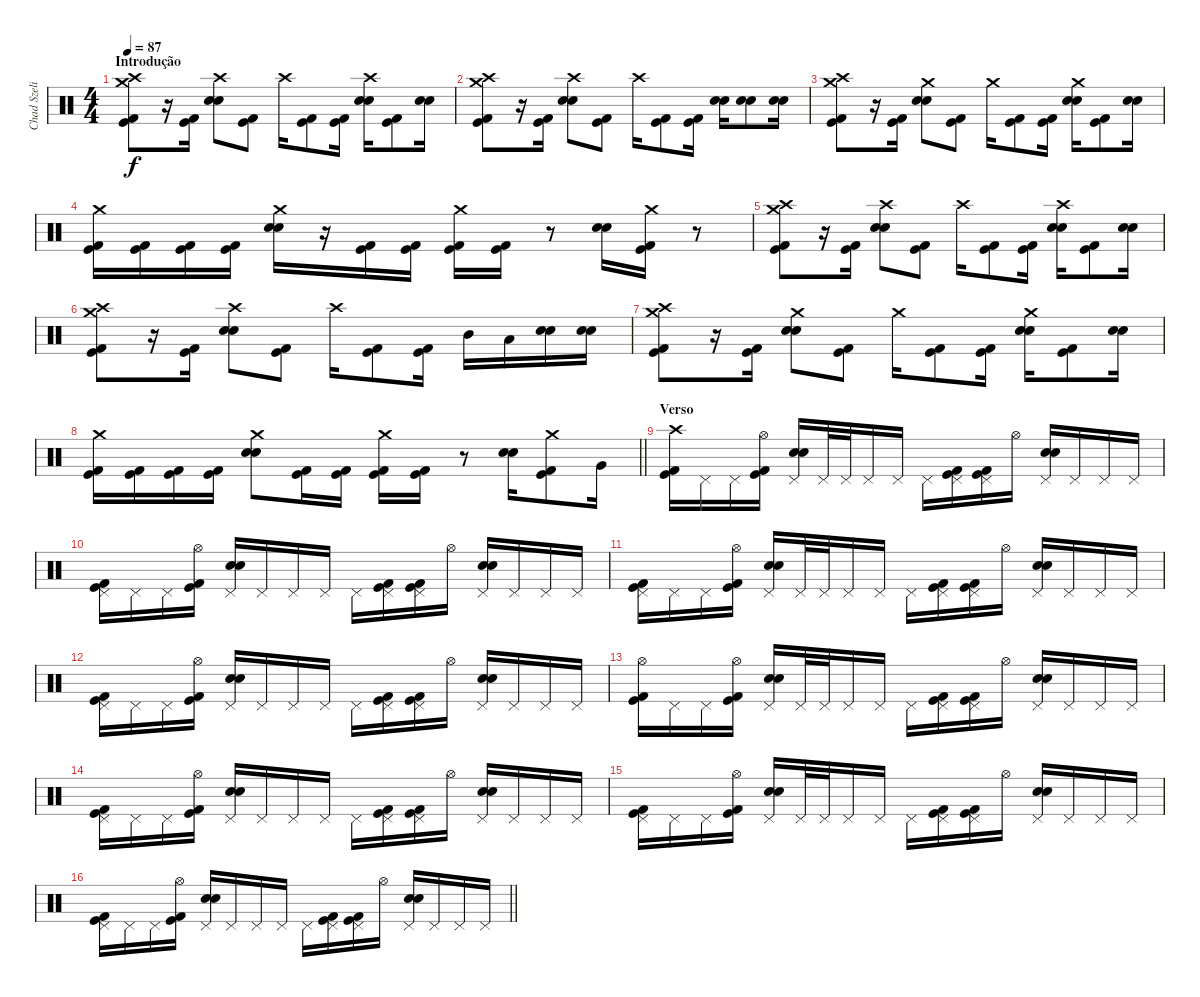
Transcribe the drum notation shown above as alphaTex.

\track ("Chad Szeliga" "Chad Szeli") {instrument percussion}
\staff {score}
\articulation defaults
\ts (4 4)
\section ("" "Introdução")
\tempo 87
\clef neutral
\ks c
("Crash high (hit)" "Kick (hit) 2" "Kick (hit)" "Crash medium (hit)").8{dy f} r.16 ("Kick (hit) 2" "Kick (hit)").16{beam Down} ("Crash high (hit)" "Snare (hit) 2" "Snare (hit) 2").8 ("Kick (hit) 2" "Kick (hit)").8 "Crash high (hit)".16 ("Kick (hit) 2" "Kick (hit)").8 ("Kick (hit) 2" "Kick (hit)").16 ("Crash high (hit)" "Snare (hit) 2" "Snare (hit) 2").16 ("Kick (hit) 2" "Kick (hit)").8 ("Snare (hit) 2" "Snare (hit) 2").16 |
("Crash high (hit)" "Kick (hit) 2" "Kick (hit)" "Crash medium (hit)").8 r.16 ("Kick (hit) 2" "Kick (hit)").16{beam Down} ("Crash high (hit)" "Snare (hit) 2" "Snare (hit) 2").8 ("Kick (hit) 2" "Kick (hit)").8 "Crash high (hit)".16 ("Kick (hit) 2" "Kick (hit)").8 ("Kick (hit) 2" "Kick (hit)").16 ("Snare (hit) 2" "Snare (hit) 2").16 ("Snare (hit) 2" "Snare (hit) 2").8 ("Snare (hit) 2" "Snare (hit) 2").16 |
("Crash high (hit)" "Kick (hit) 2" "Kick (hit)" "Crash medium (hit)").8 r.16 ("Kick (hit) 2" "Kick (hit)").16{beam Down} ("Crash medium (hit)" "Snare (hit) 2" "Snare (hit) 2").8 ("Kick (hit) 2" "Kick (hit)").8 "Crash medium (hit)".16 ("Kick (hit) 2" "Kick (hit)").8 ("Kick (hit) 2" "Kick (hit)").16 ("Crash medium (hit)" "Snare (hit) 2" "Snare (hit) 2").16 ("Kick (hit) 2" "Kick (hit)").8 ("Snare (hit) 2" "Snare (hit) 2").16 |
("Crash medium (hit)" "Kick (hit) 2" "Kick (hit)").16 ("Kick (hit) 2" "Kick (hit)").16 ("Kick (hit) 2" "Kick (hit)").16 ("Kick (hit) 2" "Kick (hit)").16 ("Crash medium (hit)" "Snare (hit) 2" "Snare (hit) 2").16 r.16 ("Kick (hit) 2" "Kick (hit)").16 ("Kick (hit) 2" "Kick (hit)").16 ("Crash medium (hit)" "Kick (hit) 2" "Kick (hit)").16 ("Kick (hit) 2" "Kick (hit)").16 r.8 ("Snare (hit) 2" "Snare (hit) 2").16 ("Crash medium (hit)" "Kick (hit) 2" "Kick (hit)").16 r.8 |
("Crash high (hit)" "Kick (hit) 2" "Kick (hit)" "Crash medium (hit)").8 r.16 ("Kick (hit) 2" "Kick (hit)").16{beam Down} ("Crash high (hit)" "Snare (hit) 2" "Snare (hit) 2").8 ("Kick (hit) 2" "Kick (hit)").8 "Crash high (hit)".16 ("Kick (hit) 2" "Kick (hit)").8 ("Kick (hit) 2" "Kick (hit)").16 ("Crash high (hit)" "Snare (hit) 2" "Snare (hit) 2").16 ("Kick (hit) 2" "Kick (hit)").8 ("Snare (hit) 2" "Snare (hit) 2").16 |
("Crash high (hit)" "Kick (hit) 2" "Kick (hit)" "Crash medium (hit)").8 r.16 ("Kick (hit) 2" "Kick (hit)").16{beam Down} ("Crash high (hit)" "Snare (hit) 2" "Snare (hit) 2").8 ("Kick (hit) 2" "Kick (hit)").8 "Crash high (hit)".16 ("Kick (hit) 2" "Kick (hit)").8 ("Kick (hit) 2" "Kick (hit)").16 "Mid Tom (hit)".16 "Low Tom (hit)".16 ("Snare (hit) 2" "Snare (hit) 2").16 ("Snare (hit) 2" "Snare (hit) 2").16 |
("Crash high (hit)" "Kick (hit) 2" "Kick (hit)" "Crash medium (hit)").8 r.16 ("Kick (hit) 2" "Kick (hit)").16{beam Down} ("Crash medium (hit)" "Snare (hit) 2" "Snare (hit) 2").8 ("Kick (hit) 2" "Kick (hit)").8 "Crash medium (hit)".16 ("Kick (hit) 2" "Kick (hit)").8 ("Kick (hit) 2" "Kick (hit)").16 ("Crash medium (hit)" "Snare (hit) 2" "Snare (hit) 2").16 ("Kick (hit) 2" "Kick (hit)").8 ("Snare (hit) 2" "Snare (hit) 2").16 |
\barLineRight lightlight
("Crash medium (hit)" "Kick (hit) 2" "Kick (hit)").16 ("Kick (hit) 2" "Kick (hit)").16 ("Kick (hit) 2" "Kick (hit)").16 ("Kick (hit) 2" "Kick (hit)").16 ("Crash medium (hit)" "Snare (hit) 2" "Snare (hit) 2").8 ("Kick (hit) 2" "Kick (hit)").16 ("Kick (hit) 2" "Kick (hit)").16 ("Crash medium (hit)" "Kick (hit) 2" "Kick (hit)").16 ("Kick (hit) 2" "Kick (hit)").16 r.8 ("Snare (hit) 2" "Snare (hit) 2").16 ("Crash medium (hit)" "Kick (hit) 2" "Kick (hit)").8 "Very Low Tom (hit)".16 |
\section ("" "Verso")
("Crash high (hit)" "Kick (hit) 2" "Kick (hit)").16 "Pedal Hi-Hat (hit)".16 "Pedal Hi-Hat (hit)".16 ("Kick (hit) 2" "Kick (hit)" "Hi-Hat (open)").16 ("Snare (hit) 2" "Snare (hit) 2" "Pedal Hi-Hat (hit)").16 "Pedal Hi-Hat (hit)".32 "Pedal Hi-Hat (hit)".32 "Pedal Hi-Hat (hit)".16 "Pedal Hi-Hat (hit)".16 "Pedal Hi-Hat (hit)".16 ("Kick (hit) 2" "Kick (hit)" "Pedal Hi-Hat (hit)").16 ("Kick (hit) 2" "Kick (hit)" "Pedal Hi-Hat (hit)").16 "Hi-Hat (open)".16 ("Snare (hit) 2" "Snare (hit) 2" "Pedal Hi-Hat (hit)").16 "Pedal Hi-Hat (hit)".16 "Pedal Hi-Hat (hit)".16 "Pedal Hi-Hat (hit)".16 |
("Kick (hit) 2" "Kick (hit)" "Pedal Hi-Hat (hit)").16 "Pedal Hi-Hat (hit)".16 "Pedal Hi-Hat (hit)".16 ("Kick (hit) 2" "Kick (hit)" "Hi-Hat (open)").16 ("Snare (hit) 2" "Snare (hit) 2" "Pedal Hi-Hat (hit)").16 "Pedal Hi-Hat (hit)".16 "Pedal Hi-Hat (hit)".16 "Pedal Hi-Hat (hit)".16 "Pedal Hi-Hat (hit)".16 ("Kick (hit) 2" "Kick (hit)" "Pedal Hi-Hat (hit)").16 ("Kick (hit) 2" "Kick (hit)" "Pedal Hi-Hat (hit)").16 "Hi-Hat (open)".16 ("Snare (hit) 2" "Snare (hit) 2" "Pedal Hi-Hat (hit)").16 "Pedal Hi-Hat (hit)".16 "Pedal Hi-Hat (hit)".16 "Pedal Hi-Hat (hit)".16 |
("Kick (hit) 2" "Kick (hit)" "Pedal Hi-Hat (hit)").16 "Pedal Hi-Hat (hit)".16 "Pedal Hi-Hat (hit)".16 ("Kick (hit) 2" "Kick (hit)" "Hi-Hat (open)").16 ("Snare (hit) 2" "Snare (hit) 2" "Pedal Hi-Hat (hit)").16 "Pedal Hi-Hat (hit)".32 "Pedal Hi-Hat (hit)".32 "Pedal Hi-Hat (hit)".16 "Pedal Hi-Hat (hit)".16 "Pedal Hi-Hat (hit)".16 ("Kick (hit) 2" "Kick (hit)" "Pedal Hi-Hat (hit)").16 ("Kick (hit) 2" "Kick (hit)" "Pedal Hi-Hat (hit)").16 "Hi-Hat (open)".16 ("Snare (hit) 2" "Snare (hit) 2" "Pedal Hi-Hat (hit)").16 "Pedal Hi-Hat (hit)".16 "Pedal Hi-Hat (hit)".16 "Pedal Hi-Hat (hit)".16 |
("Kick (hit) 2" "Kick (hit)" "Pedal Hi-Hat (hit)").16 "Pedal Hi-Hat (hit)".16 "Pedal Hi-Hat (hit)".16 ("Kick (hit) 2" "Kick (hit)" "Hi-Hat (open)").16 ("Snare (hit) 2" "Snare (hit) 2" "Pedal Hi-Hat (hit)").16 "Pedal Hi-Hat (hit)".16 "Pedal Hi-Hat (hit)".16 "Pedal Hi-Hat (hit)".16 "Pedal Hi-Hat (hit)".16 ("Kick (hit) 2" "Kick (hit)" "Pedal Hi-Hat (hit)").16 ("Kick (hit) 2" "Kick (hit)" "Pedal Hi-Hat (hit)").16 "Hi-Hat (open)".16 ("Snare (hit) 2" "Snare (hit) 2" "Pedal Hi-Hat (hit)").16 "Pedal Hi-Hat (hit)".16 "Pedal Hi-Hat (hit)".16 "Pedal Hi-Hat (hit)".16 |
("Kick (hit) 2" "Kick (hit)" "Hi-Hat (open)").16 "Pedal Hi-Hat (hit)".16 "Pedal Hi-Hat (hit)".16 ("Kick (hit) 2" "Kick (hit)" "Hi-Hat (open)").16 ("Snare (hit) 2" "Snare (hit) 2" "Pedal Hi-Hat (hit)").16 "Pedal Hi-Hat (hit)".32 "Pedal Hi-Hat (hit)".32 "Pedal Hi-Hat (hit)".16 "Pedal Hi-Hat (hit)".16 "Pedal Hi-Hat (hit)".16 ("Kick (hit) 2" "Kick (hit)" "Pedal Hi-Hat (hit)").16 ("Kick (hit) 2" "Kick (hit)" "Pedal Hi-Hat (hit)").16 "Hi-Hat (open)".16 ("Snare (hit) 2" "Snare (hit) 2" "Pedal Hi-Hat (hit)").16 "Pedal Hi-Hat (hit)".16 "Pedal Hi-Hat (hit)".16 "Pedal Hi-Hat (hit)".16 |
("Kick (hit) 2" "Kick (hit)" "Pedal Hi-Hat (hit)").16 "Pedal Hi-Hat (hit)".16 "Pedal Hi-Hat (hit)".16 ("Kick (hit) 2" "Kick (hit)" "Hi-Hat (open)").16 ("Snare (hit) 2" "Snare (hit) 2" "Pedal Hi-Hat (hit)").16 "Pedal Hi-Hat (hit)".16 "Pedal Hi-Hat (hit)".16 "Pedal Hi-Hat (hit)".16 "Pedal Hi-Hat (hit)".16 ("Kick (hit) 2" "Kick (hit)" "Pedal Hi-Hat (hit)").16 ("Kick (hit) 2" "Kick (hit)" "Pedal Hi-Hat (hit)").16 "Hi-Hat (open)".16 ("Snare (hit) 2" "Snare (hit) 2" "Pedal Hi-Hat (hit)").16 "Pedal Hi-Hat (hit)".16 "Pedal Hi-Hat (hit)".16 "Pedal Hi-Hat (hit)".16 |
("Kick (hit) 2" "Kick (hit)" "Pedal Hi-Hat (hit)").16 "Pedal Hi-Hat (hit)".16 "Pedal Hi-Hat (hit)".16 ("Kick (hit) 2" "Kick (hit)" "Hi-Hat (open)").16 ("Snare (hit) 2" "Snare (hit) 2" "Pedal Hi-Hat (hit)").16 "Pedal Hi-Hat (hit)".32 "Pedal Hi-Hat (hit)".32 "Pedal Hi-Hat (hit)".16 "Pedal Hi-Hat (hit)".16 "Pedal Hi-Hat (hit)".16 ("Kick (hit) 2" "Kick (hit)" "Pedal Hi-Hat (hit)").16 ("Kick (hit) 2" "Kick (hit)" "Pedal Hi-Hat (hit)").16 "Hi-Hat (open)".16 ("Snare (hit) 2" "Snare (hit) 2" "Pedal Hi-Hat (hit)").16 "Pedal Hi-Hat (hit)".16 "Pedal Hi-Hat (hit)".16 "Pedal Hi-Hat (hit)".16 |
\barLineRight lightlight
("Kick (hit) 2" "Kick (hit)" "Pedal Hi-Hat (hit)").16 "Pedal Hi-Hat (hit)".16 "Pedal Hi-Hat (hit)".16 ("Kick (hit) 2" "Kick (hit)" "Hi-Hat (open)").16 ("Snare (hit) 2" "Snare (hit) 2" "Pedal Hi-Hat (hit)").16 "Pedal Hi-Hat (hit)".16 "Pedal Hi-Hat (hit)".16 "Pedal Hi-Hat (hit)".16 "Pedal Hi-Hat (hit)".16 ("Kick (hit) 2" "Kick (hit)" "Pedal Hi-Hat (hit)").16 ("Kick (hit) 2" "Kick (hit)" "Pedal Hi-Hat (hit)").16 "Hi-Hat (open)".16 ("Snare (hit) 2" "Snare (hit) 2" "Pedal Hi-Hat (hit)").16 "Pedal Hi-Hat (hit)".16 "Pedal Hi-Hat (hit)".16 "Pedal Hi-Hat (hit)".16
